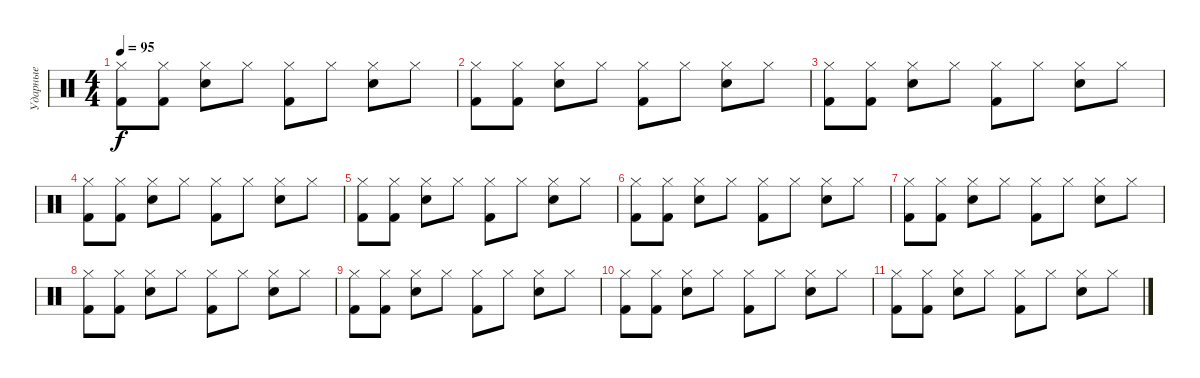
\track ("Ударные" "Ударные") {instrument percussion}
\staff {score}
\articulation defaults
\ts (4 4)
\tempo 95
\clef neutral
\ks c
("Hi-Hat (closed)" "Kick (hit) 2").8{dy f} ("Hi-Hat (closed)" "Kick (hit) 2").8 ("Hi-Hat (closed)" "Snare (hit) 2").8 "Hi-Hat (closed)".8 ("Hi-Hat (closed)" "Kick (hit) 2").8 "Hi-Hat (closed)".8 ("Hi-Hat (closed)" "Snare (hit) 2").8 "Hi-Hat (closed)".8 |
("Hi-Hat (closed)" "Kick (hit) 2").8 ("Hi-Hat (closed)" "Kick (hit) 2").8 ("Hi-Hat (closed)" "Snare (hit) 2").8 "Hi-Hat (closed)".8 ("Hi-Hat (closed)" "Kick (hit) 2").8 "Hi-Hat (closed)".8 ("Hi-Hat (closed)" "Snare (hit) 2").8 "Hi-Hat (closed)".8 |
("Hi-Hat (closed)" "Kick (hit) 2").8 ("Hi-Hat (closed)" "Kick (hit) 2").8 ("Hi-Hat (closed)" "Snare (hit) 2").8 "Hi-Hat (closed)".8 ("Hi-Hat (closed)" "Kick (hit) 2").8 "Hi-Hat (closed)".8 ("Hi-Hat (closed)" "Snare (hit) 2").8 "Hi-Hat (closed)".8 |
("Hi-Hat (closed)" "Kick (hit) 2").8 ("Hi-Hat (closed)" "Kick (hit) 2").8 ("Hi-Hat (closed)" "Snare (hit) 2").8 "Hi-Hat (closed)".8 ("Hi-Hat (closed)" "Kick (hit) 2").8 "Hi-Hat (closed)".8 ("Hi-Hat (closed)" "Snare (hit) 2").8 "Hi-Hat (closed)".8 |
("Hi-Hat (closed)" "Kick (hit) 2").8 ("Hi-Hat (closed)" "Kick (hit) 2").8 ("Hi-Hat (closed)" "Snare (hit) 2").8 "Hi-Hat (closed)".8 ("Hi-Hat (closed)" "Kick (hit) 2").8 "Hi-Hat (closed)".8 ("Hi-Hat (closed)" "Snare (hit) 2").8 "Hi-Hat (closed)".8 |
("Hi-Hat (closed)" "Kick (hit) 2").8 ("Hi-Hat (closed)" "Kick (hit) 2").8 ("Hi-Hat (closed)" "Snare (hit) 2").8 "Hi-Hat (closed)".8 ("Hi-Hat (closed)" "Kick (hit) 2").8 "Hi-Hat (closed)".8 ("Hi-Hat (closed)" "Snare (hit) 2").8 "Hi-Hat (closed)".8 |
("Hi-Hat (closed)" "Kick (hit) 2").8 ("Hi-Hat (closed)" "Kick (hit) 2").8 ("Hi-Hat (closed)" "Snare (hit) 2").8 "Hi-Hat (closed)".8 ("Hi-Hat (closed)" "Kick (hit) 2").8 "Hi-Hat (closed)".8 ("Hi-Hat (closed)" "Snare (hit) 2").8 "Hi-Hat (closed)".8 |
("Hi-Hat (closed)" "Kick (hit) 2").8 ("Hi-Hat (closed)" "Kick (hit) 2").8 ("Hi-Hat (closed)" "Snare (hit) 2").8 "Hi-Hat (closed)".8 ("Hi-Hat (closed)" "Kick (hit) 2").8 "Hi-Hat (closed)".8 ("Hi-Hat (closed)" "Snare (hit) 2").8 "Hi-Hat (closed)".8 |
("Hi-Hat (closed)" "Kick (hit) 2").8 ("Hi-Hat (closed)" "Kick (hit) 2").8 ("Hi-Hat (closed)" "Snare (hit) 2").8 "Hi-Hat (closed)".8 ("Hi-Hat (closed)" "Kick (hit) 2").8 "Hi-Hat (closed)".8 ("Hi-Hat (closed)" "Snare (hit) 2").8 "Hi-Hat (closed)".8 |
("Hi-Hat (closed)" "Kick (hit) 2").8 ("Hi-Hat (closed)" "Kick (hit) 2").8 ("Hi-Hat (closed)" "Snare (hit) 2").8 "Hi-Hat (closed)".8 ("Hi-Hat (closed)" "Kick (hit) 2").8 "Hi-Hat (closed)".8 ("Hi-Hat (closed)" "Snare (hit) 2").8 "Hi-Hat (closed)".8 |
("Hi-Hat (closed)" "Kick (hit) 2").8 ("Hi-Hat (closed)" "Kick (hit) 2").8 ("Hi-Hat (closed)" "Snare (hit) 2").8 "Hi-Hat (closed)".8 ("Hi-Hat (closed)" "Kick (hit) 2").8 "Hi-Hat (closed)".8 ("Hi-Hat (closed)" "Snare (hit) 2").8 "Hi-Hat (closed)".8
